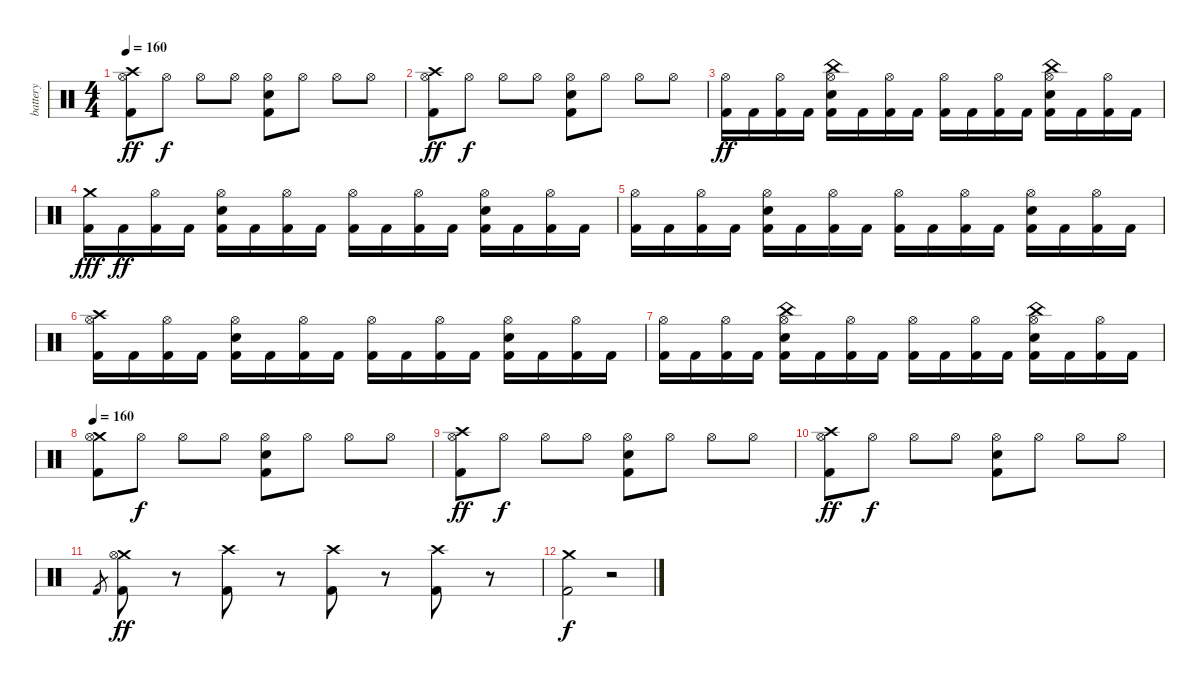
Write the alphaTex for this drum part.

\track ("battery" "battery") {instrument percussion}
\staff {score}
\articulation defaults
\ts (4 4)
\tempo 160
\clef neutral
\ks c
("Kick (hit) 2" "Crash high (hit)" "Hi-Hat (open)").8{dy ff} "Hi-Hat (open)".8{dy f} "Hi-Hat (open)".8 "Hi-Hat (open)".8 ("Kick (hit) 2" "Electric Snare (hit)" "Hi-Hat (open)").8 "Hi-Hat (open)".8 "Hi-Hat (open)".8 "Hi-Hat (open)".8 |
("Kick (hit) 2" "Crash high (hit)" "Hi-Hat (open)").8{dy ff} "Hi-Hat (open)".8{dy f} "Hi-Hat (open)".8 "Hi-Hat (open)".8 ("Kick (hit) 2" "Electric Snare (hit)" "Hi-Hat (open)").8 "Hi-Hat (open)".8 "Hi-Hat (open)".8 "Hi-Hat (open)".8 |
("Kick (hit) 2" "Hi-Hat (open)").16{dy ff} "Kick (hit) 2".16 ("Kick (hit) 2" "Hi-Hat (open)").16 "Kick (hit) 2".16 ("Kick (hit) 2" "China (hit)" "Electric Snare (hit)" "Hi-Hat (open)").16 "Kick (hit) 2".16 ("Kick (hit) 2" "Hi-Hat (open)").16 "Kick (hit) 2".16 ("Kick (hit) 2" "Hi-Hat (open)").16 "Kick (hit) 2".16 ("Kick (hit) 2" "Hi-Hat (open)").16 "Kick (hit) 2".16 ("Kick (hit) 2" "China (hit)" "Electric Snare (hit)" "Hi-Hat (open)").16 "Kick (hit) 2".16 ("Kick (hit) 2" "Hi-Hat (open)").16 "Kick (hit) 2".16 |
("Kick (hit) 2" "Crash medium (hit)").16{dy fff} "Kick (hit) 2".16{dy ff} ("Kick (hit) 2" "Hi-Hat (open)").16 "Kick (hit) 2".16 ("Kick (hit) 2" "Electric Snare (hit)" "Hi-Hat (open)").16 "Kick (hit) 2".16 ("Kick (hit) 2" "Hi-Hat (open)").16 "Kick (hit) 2".16 ("Kick (hit) 2" "Hi-Hat (open)").16 "Kick (hit) 2".16 ("Kick (hit) 2" "Hi-Hat (open)").16 "Kick (hit) 2".16 ("Kick (hit) 2" "Electric Snare (hit)" "Hi-Hat (open)").16 "Kick (hit) 2".16 ("Kick (hit) 2" "Hi-Hat (open)").16 "Kick (hit) 2".16 |
("Kick (hit) 2" "Hi-Hat (open)").16 "Kick (hit) 2".16 ("Kick (hit) 2" "Hi-Hat (open)").16 "Kick (hit) 2".16 ("Kick (hit) 2" "Electric Snare (hit)" "Hi-Hat (open)").16 "Kick (hit) 2".16 ("Kick (hit) 2" "Hi-Hat (open)").16 "Kick (hit) 2".16 ("Kick (hit) 2" "Hi-Hat (open)").16 "Kick (hit) 2".16 ("Kick (hit) 2" "Hi-Hat (open)").16 "Kick (hit) 2".16 ("Kick (hit) 2" "Electric Snare (hit)" "Hi-Hat (open)").16 "Kick (hit) 2".16 ("Kick (hit) 2" "Hi-Hat (open)").16 "Kick (hit) 2".16 |
("Kick (hit) 2" "Crash high (hit)" "Hi-Hat (open)").16 "Kick (hit) 2".16 ("Kick (hit) 2" "Hi-Hat (open)").16 "Kick (hit) 2".16 ("Kick (hit) 2" "Electric Snare (hit)" "Hi-Hat (open)").16 "Kick (hit) 2".16 ("Kick (hit) 2" "Hi-Hat (open)").16 "Kick (hit) 2".16 ("Kick (hit) 2" "Hi-Hat (open)").16 "Kick (hit) 2".16 ("Kick (hit) 2" "Hi-Hat (open)").16 "Kick (hit) 2".16 ("Kick (hit) 2" "Electric Snare (hit)" "Hi-Hat (open)").16 "Kick (hit) 2".16 ("Kick (hit) 2" "Hi-Hat (open)").16 "Kick (hit) 2".16 |
("Kick (hit) 2" "Hi-Hat (open)").16 "Kick (hit) 2".16 ("Kick (hit) 2" "Hi-Hat (open)").16 "Kick (hit) 2".16 ("Kick (hit) 2" "China (hit)" "Electric Snare (hit)" "Hi-Hat (open)").16 "Kick (hit) 2".16 ("Kick (hit) 2" "Hi-Hat (open)").16 "Kick (hit) 2".16 ("Kick (hit) 2" "Hi-Hat (open)").16 "Kick (hit) 2".16 ("Kick (hit) 2" "Hi-Hat (open)").16 "Kick (hit) 2".16 ("Kick (hit) 2" "China (hit)" "Electric Snare (hit)" "Hi-Hat (open)").16 "Kick (hit) 2".16 ("Kick (hit) 2" "Hi-Hat (open)").16 "Kick (hit) 2".16 |
\tempo 160
("Kick (hit) 2" "Crash medium (hit)" "Hi-Hat (open)").8 "Hi-Hat (open)".8{dy f} "Hi-Hat (open)".8 "Hi-Hat (open)".8 ("Kick (hit) 2" "Electric Snare (hit)" "Hi-Hat (open)").8 "Hi-Hat (open)".8 "Hi-Hat (open)".8 "Hi-Hat (open)".8 |
("Kick (hit) 2" "Crash high (hit)" "Hi-Hat (open)").8{dy ff} "Hi-Hat (open)".8{dy f} "Hi-Hat (open)".8 "Hi-Hat (open)".8 ("Kick (hit) 2" "Electric Snare (hit)" "Hi-Hat (open)").8 "Hi-Hat (open)".8 "Hi-Hat (open)".8 "Hi-Hat (open)".8 |
("Kick (hit) 2" "Crash high (hit)" "Hi-Hat (open)").8{dy ff} "Hi-Hat (open)".8{dy f} "Hi-Hat (open)".8 "Hi-Hat (open)".8 ("Kick (hit) 2" "Electric Snare (hit)" "Hi-Hat (open)").8 "Hi-Hat (open)".8 "Hi-Hat (open)".8 "Hi-Hat (open)".8 |
"Kick (hit) 2".8{gr} ("Crash medium (hit)" "Hi-Hat (open)" "Kick (hit) 2").8{dy ff} r.8 ("Crash high (hit)" "Kick (hit) 2").8 r.8 ("Crash high (hit)" "Kick (hit) 2").8 r.8 ("Crash high (hit)" "Kick (hit) 2").8 r.8 |
("Crash medium (hit)" "Kick (hit) 2").2{dy f} r.2
